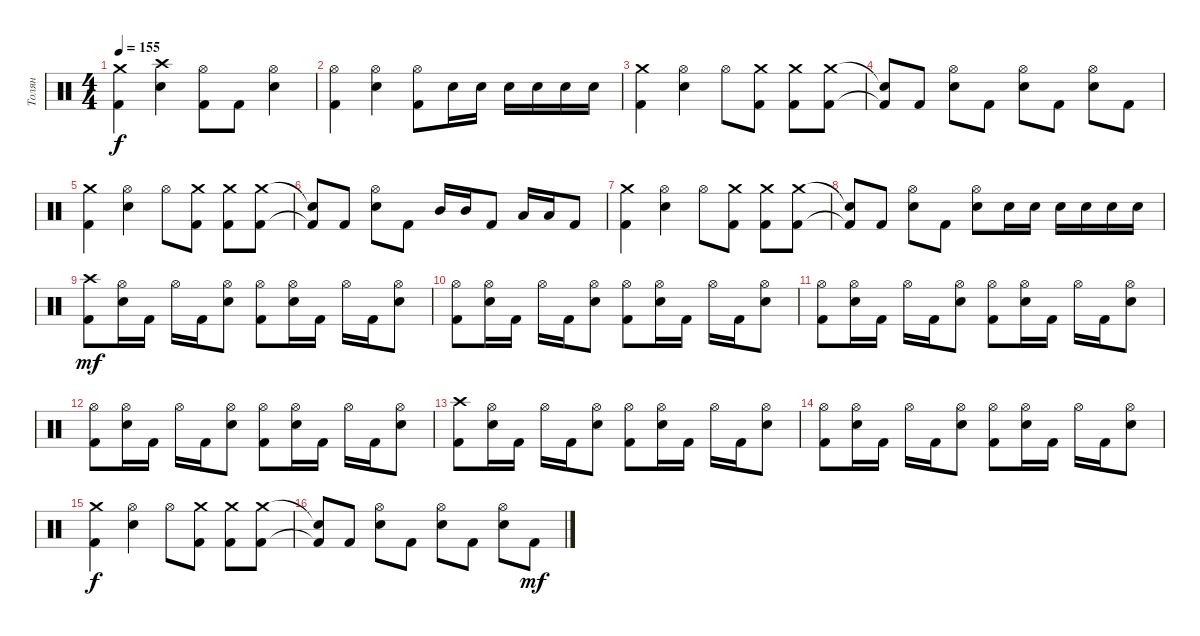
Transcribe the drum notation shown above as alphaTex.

\track ("Толян" "Толян") {instrument percussion}
\staff {score}
\articulation defaults
\ts (4 4)
\tempo 155
\clef neutral
\ks c
("Kick (hit) 2" "Crash medium (hit)").4{dy f} ("Electric Snare (hit)" "Crash high (hit)").4 ("Kick (hit) 2" "Hi-Hat (open)").8 "Kick (hit) 2".8 ("Electric Snare (hit)" "Hi-Hat (open)").4 |
("Kick (hit) 2" "Hi-Hat (open)").4 ("Electric Snare (hit)" "Hi-Hat (open)").4 ("Kick (hit) 2" "Hi-Hat (open)").8 "Electric Snare (hit)".16 "Electric Snare (hit)".16 "Electric Snare (hit)".16 "Electric Snare (hit)".16 "Electric Snare (hit)".16 "Electric Snare (hit)".16 |
("Kick (hit) 2" "Crash medium (hit)").4 ("Electric Snare (hit)" "Hi-Hat (open)").4 "Hi-Hat (open)".8 ("Kick (hit) 2" "Crash medium (hit)").8 ("Kick (hit) 2" "Crash medium (hit)").8 ("Kick (hit) 2" "Crash medium (hit)").8 |
("Kick (hit) 2"{t} "Snare (hit)"{t}).8 "Kick (hit) 2".8 ("Electric Snare (hit)" "Hi-Hat (open)").8 "Kick (hit) 2".8 ("Electric Snare (hit)" "Hi-Hat (open)").8 "Kick (hit) 2".8 ("Electric Snare (hit)" "Hi-Hat (open)").8 "Kick (hit) 2".8 |
("Kick (hit) 2" "Crash medium (hit)").4 ("Electric Snare (hit)" "Hi-Hat (open)").4 "Hi-Hat (open)".8 ("Kick (hit) 2" "Crash medium (hit)").8 ("Kick (hit) 2" "Crash medium (hit)").8 ("Kick (hit) 2" "Crash medium (hit)").8 |
("Kick (hit) 2"{t} "Snare (hit)"{t}).8 "Kick (hit) 2".8 ("Electric Snare (hit)" "Hi-Hat (open)").8 "Kick (hit) 2".8 "Mid Tom (hit)".16 "Mid Tom (hit)".16 "Kick (hit) 2".8 "Low Tom (hit)".16 "Low Tom (hit)".16 "Kick (hit) 2".8 |
("Kick (hit) 2" "Crash medium (hit)").4 ("Electric Snare (hit)" "Hi-Hat (open)").4 "Hi-Hat (open)".8 ("Kick (hit) 2" "Crash medium (hit)").8 ("Kick (hit) 2" "Crash medium (hit)").8 ("Kick (hit) 2" "Crash medium (hit)").8 |
("Kick (hit) 2"{t} "Snare (hit)"{t}).8 "Kick (hit) 2".8 ("Electric Snare (hit)" "Hi-Hat (open)").8 "Kick (hit) 2".8 ("Electric Snare (hit)" "Hi-Hat (open)").8 "Electric Snare (hit)".16 "Electric Snare (hit)".16 "Electric Snare (hit)".16 "Electric Snare (hit)".16 "Electric Snare (hit)".16 "Electric Snare (hit)".16 |
("Kick (hit) 2" "Crash high (hit)").8{dy mf} ("Electric Snare (hit)" "Hi-Hat (open)").16 "Kick (hit) 2".16 "Hi-Hat (open)".16 "Kick (hit) 2".16 ("Electric Snare (hit)" "Hi-Hat (open)").8 ("Kick (hit) 2" "Hi-Hat (open)").8 ("Electric Snare (hit)" "Hi-Hat (open)").16 "Kick (hit) 2".16 "Hi-Hat (open)".16 "Kick (hit) 2".16 ("Electric Snare (hit)" "Hi-Hat (open)").8 |
("Kick (hit) 2" "Hi-Hat (open)").8 ("Electric Snare (hit)" "Hi-Hat (open)").16 "Kick (hit) 2".16 "Hi-Hat (open)".16 "Kick (hit) 2".16 ("Electric Snare (hit)" "Hi-Hat (open)").8 ("Kick (hit) 2" "Hi-Hat (open)").8 ("Electric Snare (hit)" "Hi-Hat (open)").16 "Kick (hit) 2".16 "Hi-Hat (open)".16 "Kick (hit) 2".16 ("Electric Snare (hit)" "Hi-Hat (open)").8 |
("Kick (hit) 2" "Hi-Hat (open)").8 ("Electric Snare (hit)" "Hi-Hat (open)").16 "Kick (hit) 2".16 "Hi-Hat (open)".16 "Kick (hit) 2".16 ("Electric Snare (hit)" "Hi-Hat (open)").8 ("Kick (hit) 2" "Hi-Hat (open)").8 ("Electric Snare (hit)" "Hi-Hat (open)").16 "Kick (hit) 2".16 "Hi-Hat (open)".16 "Kick (hit) 2".16 ("Electric Snare (hit)" "Hi-Hat (open)").8 |
("Kick (hit) 2" "Hi-Hat (open)").8 ("Electric Snare (hit)" "Hi-Hat (open)").16 "Kick (hit) 2".16 "Hi-Hat (open)".16 "Kick (hit) 2".16 ("Electric Snare (hit)" "Hi-Hat (open)").8 ("Kick (hit) 2" "Hi-Hat (open)").8 ("Electric Snare (hit)" "Hi-Hat (open)").16 "Kick (hit) 2".16 "Hi-Hat (open)".16 "Kick (hit) 2".16 ("Electric Snare (hit)" "Hi-Hat (open)").8 |
("Kick (hit) 2" "Crash high (hit)").8 ("Electric Snare (hit)" "Hi-Hat (open)").16 "Kick (hit) 2".16 "Hi-Hat (open)".16 "Kick (hit) 2".16 ("Electric Snare (hit)" "Hi-Hat (open)").8 ("Kick (hit) 2" "Hi-Hat (open)").8 ("Electric Snare (hit)" "Hi-Hat (open)").16 "Kick (hit) 2".16 "Hi-Hat (open)".16 "Kick (hit) 2".16 ("Electric Snare (hit)" "Hi-Hat (open)").8 |
("Kick (hit) 2" "Hi-Hat (open)").8 ("Electric Snare (hit)" "Hi-Hat (open)").16 "Kick (hit) 2".16 "Hi-Hat (open)".16 "Kick (hit) 2".16 ("Electric Snare (hit)" "Hi-Hat (open)").8 ("Kick (hit) 2" "Hi-Hat (open)").8 ("Electric Snare (hit)" "Hi-Hat (open)").16 "Kick (hit) 2".16 "Hi-Hat (open)".16 "Kick (hit) 2".16 ("Electric Snare (hit)" "Hi-Hat (open)").8 |
("Kick (hit) 2" "Crash medium (hit)").4{dy f} ("Electric Snare (hit)" "Hi-Hat (open)").4 "Hi-Hat (open)".8 ("Kick (hit) 2" "Crash medium (hit)").8 ("Kick (hit) 2" "Crash medium (hit)").8 ("Kick (hit) 2" "Crash medium (hit)").8 |
("Kick (hit) 2"{t} "Snare (hit)"{t}).8 "Kick (hit) 2".8 ("Electric Snare (hit)" "Hi-Hat (open)").8 "Kick (hit) 2".8 ("Electric Snare (hit)" "Hi-Hat (open)").8 "Kick (hit) 2".8 ("Electric Snare (hit)" "Hi-Hat (open)").8 "Kick (hit) 2".8{dy mf}
